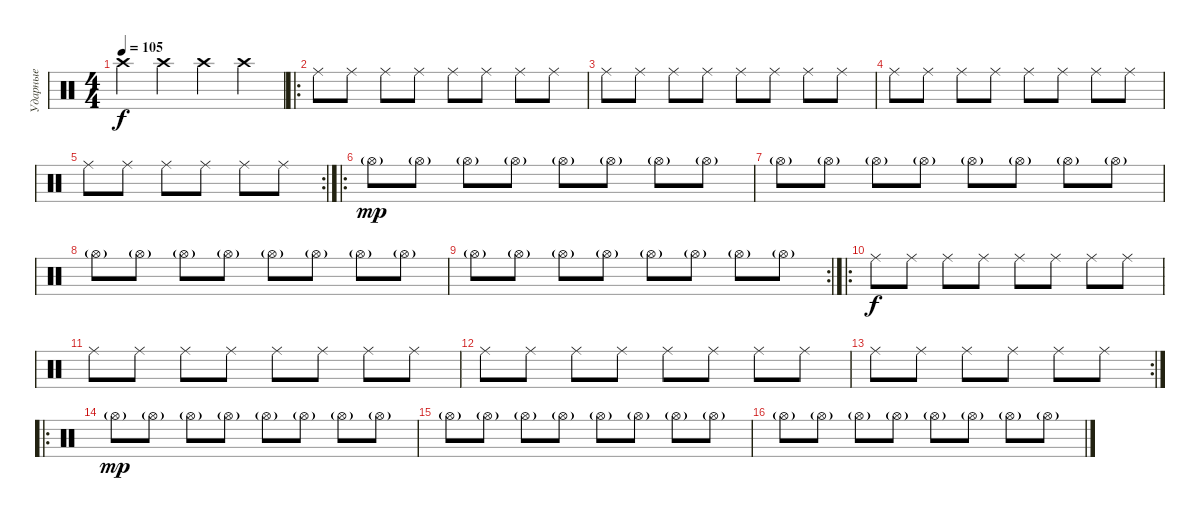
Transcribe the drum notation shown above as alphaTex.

\track ("Ударные" "Ударные") {instrument percussion}
\staff {score}
\articulation defaults
\ts (4 4)
\tempo 105
\clef neutral
\ks c "Crash high (hit)".4{dy f} "Crash high (hit)".4 "Crash high (hit)".4 "Crash high (hit)".4
|
\ro "Ride (middle)".8 "Ride (middle)".8 "Ride (middle)".8 "Ride (middle)".8 "Ride (middle)".8 "Ride (middle)".8 "Ride (middle)".8 "Ride (middle)".8
|
"Ride (middle)".8 "Ride (middle)".8 "Ride (middle)".8 "Ride (middle)".8 "Ride (middle)".8 "Ride (middle)".8 "Ride (middle)".8 "Ride (middle)".8 |
"Ride (middle)".8 "Ride (middle)".8 "Ride (middle)".8 "Ride (middle)".8 "Ride (middle)".8 "Ride (middle)".8 "Ride (middle)".8 "Ride (middle)".8 |
\rc 2 "Ride (middle)".8 "Ride (middle)".8 "Ride (middle)".8 "Ride (middle)".8 "Ride (middle)".8 "Ride (middle)".8
|
\ro "Hi-Hat (open)"{g}.8{dy mp} "Hi-Hat (open)"{g}.8 "Hi-Hat (open)"{g}.8 "Hi-Hat (open)"{g}.8 "Hi-Hat (open)"{g}.8 "Hi-Hat (open)"{g}.8 "Hi-Hat (open)"{g}.8 "Hi-Hat (open)"{g}.8
|
"Hi-Hat (open)"{g}.8 "Hi-Hat (open)"{g}.8 "Hi-Hat (open)"{g}.8 "Hi-Hat (open)"{g}.8 "Hi-Hat (open)"{g}.8 "Hi-Hat (open)"{g}.8 "Hi-Hat (open)"{g}.8 "Hi-Hat (open)"{g}.8 |
"Hi-Hat (open)"{g}.8 "Hi-Hat (open)"{g}.8 "Hi-Hat (open)"{g}.8 "Hi-Hat (open)"{g}.8 "Hi-Hat (open)"{g}.8 "Hi-Hat (open)"{g}.8 "Hi-Hat (open)"{g}.8 "Hi-Hat (open)"{g}.8 |
\rc 2 "Hi-Hat (open)"{g}.8 "Hi-Hat (open)"{g}.8 "Hi-Hat (open)"{g}.8 "Hi-Hat (open)"{g}.8 "Hi-Hat (open)"{g}.8 "Hi-Hat (open)"{g}.8 "Hi-Hat (open)"{g}.8 "Hi-Hat (open)"{g}.8
|
\ro "Ride (middle)".8{dy f} "Ride (middle)".8 "Ride (middle)".8 "Ride (middle)".8 "Ride (middle)".8 "Ride (middle)".8 "Ride (middle)".8 "Ride (middle)".8
|
"Ride (middle)".8 "Ride (middle)".8 "Ride (middle)".8 "Ride (middle)".8 "Ride (middle)".8 "Ride (middle)".8 "Ride (middle)".8 "Ride (middle)".8 |
"Ride (middle)".8 "Ride (middle)".8 "Ride (middle)".8 "Ride (middle)".8 "Ride (middle)".8 "Ride (middle)".8 "Ride (middle)".8 "Ride (middle)".8 |
\rc 2 "Ride (middle)".8 "Ride (middle)".8 "Ride (middle)".8 "Ride (middle)".8 "Ride (middle)".8 "Ride (middle)".8
|
\ro "Hi-Hat (open)"{g}.8{dy mp} "Hi-Hat (open)"{g}.8 "Hi-Hat (open)"{g}.8 "Hi-Hat (open)"{g}.8 "Hi-Hat (open)"{g}.8 "Hi-Hat (open)"{g}.8 "Hi-Hat (open)"{g}.8 "Hi-Hat (open)"{g}.8
|
"Hi-Hat (open)"{g}.8 "Hi-Hat (open)"{g}.8 "Hi-Hat (open)"{g}.8 "Hi-Hat (open)"{g}.8 "Hi-Hat (open)"{g}.8 "Hi-Hat (open)"{g}.8 "Hi-Hat (open)"{g}.8 "Hi-Hat (open)"{g}.8 |
"Hi-Hat (open)"{g}.8 "Hi-Hat (open)"{g}.8 "Hi-Hat (open)"{g}.8 "Hi-Hat (open)"{g}.8 "Hi-Hat (open)"{g}.8 "Hi-Hat (open)"{g}.8 "Hi-Hat (open)"{g}.8 "Hi-Hat (open)"{g}.8
